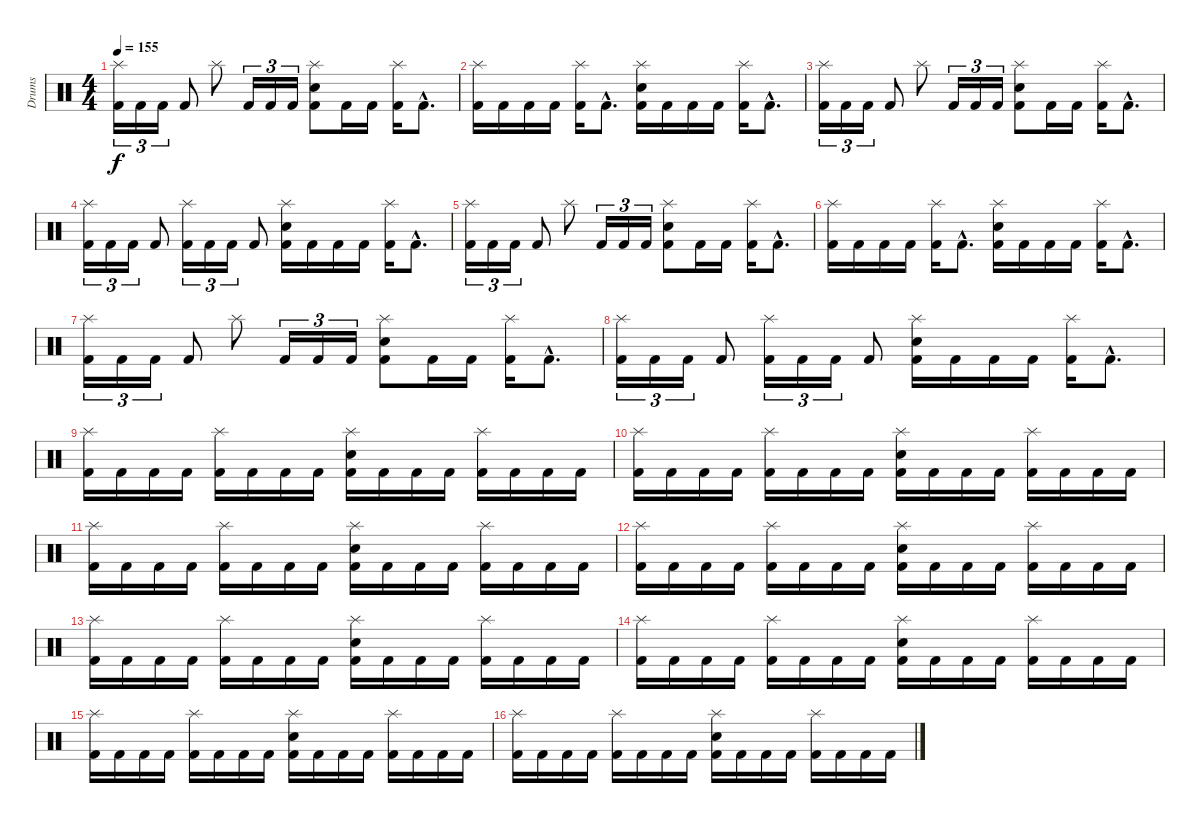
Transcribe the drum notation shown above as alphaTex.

\track ("Drums" "Drums") {instrument percussion}
\staff {score}
\articulation defaults
\ts (4 4)
\tempo 155
\clef neutral
\ks c
("Splash (hit)" "Kick (hit) 2").16{tu (3 2) dy f} "Kick (hit) 2".16{tu (3 2)} "Kick (hit) 2".16{tu (3 2)} "Kick (hit) 2".8 "Splash (hit)".8 "Kick (hit) 2".16{tu (3 2)} "Kick (hit) 2".16{tu (3 2)} "Kick (hit) 2".16{tu (3 2)} ("Splash (hit)" "Electric Snare (hit)" "Kick (hit) 2").8 "Kick (hit) 2".16 "Kick (hit) 2".16 ("Splash (hit)" "Kick (hit) 2").16 "Kick (hit) 2"{hac}.8{d} |
("Splash (hit)" "Kick (hit) 2").16 "Kick (hit) 2".16 "Kick (hit) 2".16 "Kick (hit) 2".16 ("Splash (hit)" "Kick (hit) 2").16 "Kick (hit) 2"{hac}.8{d} ("Splash (hit)" "Electric Snare (hit)" "Kick (hit) 2").16 "Kick (hit) 2".16 "Kick (hit) 2".16 "Kick (hit) 2".16 ("Splash (hit)" "Kick (hit) 2").16 "Kick (hit) 2"{hac}.8{d} |
("Splash (hit)" "Kick (hit) 2").16{tu (3 2)} "Kick (hit) 2".16{tu (3 2)} "Kick (hit) 2".16{tu (3 2)} "Kick (hit) 2".8 "Splash (hit)".8 "Kick (hit) 2".16{tu (3 2)} "Kick (hit) 2".16{tu (3 2)} "Kick (hit) 2".16{tu (3 2)} ("Splash (hit)" "Electric Snare (hit)" "Kick (hit) 2").8 "Kick (hit) 2".16 "Kick (hit) 2".16 ("Splash (hit)" "Kick (hit) 2").16 "Kick (hit) 2"{hac}.8{d} |
("Splash (hit)" "Kick (hit) 2").16{tu (3 2)} "Kick (hit) 2".16{tu (3 2)} "Kick (hit) 2".16{tu (3 2)} "Kick (hit) 2".8 ("Splash (hit)" "Kick (hit) 2").16{tu (3 2)} "Kick (hit) 2".16{tu (3 2)} "Kick (hit) 2".16{tu (3 2)} "Kick (hit) 2".8 ("Splash (hit)" "Electric Snare (hit)" "Kick (hit) 2").16 "Kick (hit) 2".16 "Kick (hit) 2".16 "Kick (hit) 2".16 ("Splash (hit)" "Kick (hit) 2").16 "Kick (hit) 2"{hac}.8{d} |
("Splash (hit)" "Kick (hit) 2").16{tu (3 2)} "Kick (hit) 2".16{tu (3 2)} "Kick (hit) 2".16{tu (3 2)} "Kick (hit) 2".8 "Splash (hit)".8 "Kick (hit) 2".16{tu (3 2)} "Kick (hit) 2".16{tu (3 2)} "Kick (hit) 2".16{tu (3 2)} ("Splash (hit)" "Electric Snare (hit)" "Kick (hit) 2").8 "Kick (hit) 2".16 "Kick (hit) 2".16 ("Splash (hit)" "Kick (hit) 2").16 "Kick (hit) 2"{hac}.8{d} |
("Splash (hit)" "Kick (hit) 2").16 "Kick (hit) 2".16 "Kick (hit) 2".16 "Kick (hit) 2".16 ("Splash (hit)" "Kick (hit) 2").16 "Kick (hit) 2"{hac}.8{d} ("Splash (hit)" "Electric Snare (hit)" "Kick (hit) 2").16 "Kick (hit) 2".16 "Kick (hit) 2".16 "Kick (hit) 2".16 ("Splash (hit)" "Kick (hit) 2").16 "Kick (hit) 2"{hac}.8{d} |
("Splash (hit)" "Kick (hit) 2").16{tu (3 2)} "Kick (hit) 2".16{tu (3 2)} "Kick (hit) 2".16{tu (3 2)} "Kick (hit) 2".8 "Splash (hit)".8 "Kick (hit) 2".16{tu (3 2)} "Kick (hit) 2".16{tu (3 2)} "Kick (hit) 2".16{tu (3 2)} ("Splash (hit)" "Electric Snare (hit)" "Kick (hit) 2").8 "Kick (hit) 2".16 "Kick (hit) 2".16 ("Splash (hit)" "Kick (hit) 2").16 "Kick (hit) 2"{hac}.8{d} |
("Splash (hit)" "Kick (hit) 2").16{tu (3 2)} "Kick (hit) 2".16{tu (3 2)} "Kick (hit) 2".16{tu (3 2)} "Kick (hit) 2".8 ("Splash (hit)" "Kick (hit) 2").16{tu (3 2)} "Kick (hit) 2".16{tu (3 2)} "Kick (hit) 2".16{tu (3 2)} "Kick (hit) 2".8 ("Splash (hit)" "Electric Snare (hit)" "Kick (hit) 2").16 "Kick (hit) 2".16 "Kick (hit) 2".16 "Kick (hit) 2".16 ("Splash (hit)" "Kick (hit) 2").16 "Kick (hit) 2"{hac}.8{d} |
("Splash (hit)" "Kick (hit) 2").16 "Kick (hit) 2".16 "Kick (hit) 2".16 "Kick (hit) 2".16 ("Splash (hit)" "Kick (hit) 2").16 "Kick (hit) 2".16 "Kick (hit) 2".16 "Kick (hit) 2".16 ("Splash (hit)" "Electric Snare (hit)" "Kick (hit) 2").16 "Kick (hit) 2".16 "Kick (hit) 2".16 "Kick (hit) 2".16 ("Splash (hit)" "Kick (hit) 2").16 "Kick (hit) 2".16 "Kick (hit) 2".16 "Kick (hit) 2".16 |
("Splash (hit)" "Kick (hit) 2").16 "Kick (hit) 2".16 "Kick (hit) 2".16 "Kick (hit) 2".16 ("Splash (hit)" "Kick (hit) 2").16 "Kick (hit) 2".16 "Kick (hit) 2".16 "Kick (hit) 2".16 ("Splash (hit)" "Electric Snare (hit)" "Kick (hit) 2").16 "Kick (hit) 2".16 "Kick (hit) 2".16 "Kick (hit) 2".16 ("Splash (hit)" "Kick (hit) 2").16 "Kick (hit) 2".16 "Kick (hit) 2".16 "Kick (hit) 2".16 |
("Splash (hit)" "Kick (hit) 2").16 "Kick (hit) 2".16 "Kick (hit) 2".16 "Kick (hit) 2".16 ("Splash (hit)" "Kick (hit) 2").16 "Kick (hit) 2".16 "Kick (hit) 2".16 "Kick (hit) 2".16 ("Splash (hit)" "Electric Snare (hit)" "Kick (hit) 2").16 "Kick (hit) 2".16 "Kick (hit) 2".16 "Kick (hit) 2".16 ("Splash (hit)" "Kick (hit) 2").16 "Kick (hit) 2".16 "Kick (hit) 2".16 "Kick (hit) 2".16 |
("Splash (hit)" "Kick (hit) 2").16 "Kick (hit) 2".16 "Kick (hit) 2".16 "Kick (hit) 2".16 ("Splash (hit)" "Kick (hit) 2").16 "Kick (hit) 2".16 "Kick (hit) 2".16 "Kick (hit) 2".16 ("Splash (hit)" "Electric Snare (hit)" "Kick (hit) 2").16 "Kick (hit) 2".16 "Kick (hit) 2".16 "Kick (hit) 2".16 ("Splash (hit)" "Kick (hit) 2").16 "Kick (hit) 2".16 "Kick (hit) 2".16 "Kick (hit) 2".16 |
("Splash (hit)" "Kick (hit) 2").16 "Kick (hit) 2".16 "Kick (hit) 2".16 "Kick (hit) 2".16 ("Splash (hit)" "Kick (hit) 2").16 "Kick (hit) 2".16 "Kick (hit) 2".16 "Kick (hit) 2".16 ("Splash (hit)" "Electric Snare (hit)" "Kick (hit) 2").16 "Kick (hit) 2".16 "Kick (hit) 2".16 "Kick (hit) 2".16 ("Splash (hit)" "Kick (hit) 2").16 "Kick (hit) 2".16 "Kick (hit) 2".16 "Kick (hit) 2".16 |
("Splash (hit)" "Kick (hit) 2").16 "Kick (hit) 2".16 "Kick (hit) 2".16 "Kick (hit) 2".16 ("Splash (hit)" "Kick (hit) 2").16 "Kick (hit) 2".16 "Kick (hit) 2".16 "Kick (hit) 2".16 ("Splash (hit)" "Electric Snare (hit)" "Kick (hit) 2").16 "Kick (hit) 2".16 "Kick (hit) 2".16 "Kick (hit) 2".16 ("Splash (hit)" "Kick (hit) 2").16 "Kick (hit) 2".16 "Kick (hit) 2".16 "Kick (hit) 2".16 |
("Splash (hit)" "Kick (hit) 2").16 "Kick (hit) 2".16 "Kick (hit) 2".16 "Kick (hit) 2".16 ("Splash (hit)" "Kick (hit) 2").16 "Kick (hit) 2".16 "Kick (hit) 2".16 "Kick (hit) 2".16 ("Splash (hit)" "Electric Snare (hit)" "Kick (hit) 2").16 "Kick (hit) 2".16 "Kick (hit) 2".16 "Kick (hit) 2".16 ("Splash (hit)" "Kick (hit) 2").16 "Kick (hit) 2".16 "Kick (hit) 2".16 "Kick (hit) 2".16 |
("Splash (hit)" "Kick (hit) 2").16 "Kick (hit) 2".16 "Kick (hit) 2".16 "Kick (hit) 2".16 ("Splash (hit)" "Kick (hit) 2").16 "Kick (hit) 2".16 "Kick (hit) 2".16 "Kick (hit) 2".16 ("Splash (hit)" "Electric Snare (hit)" "Kick (hit) 2").16 "Kick (hit) 2".16 "Kick (hit) 2".16 "Kick (hit) 2".16 ("Splash (hit)" "Kick (hit) 2").16 "Kick (hit) 2".16 "Kick (hit) 2".16 "Kick (hit) 2".16
